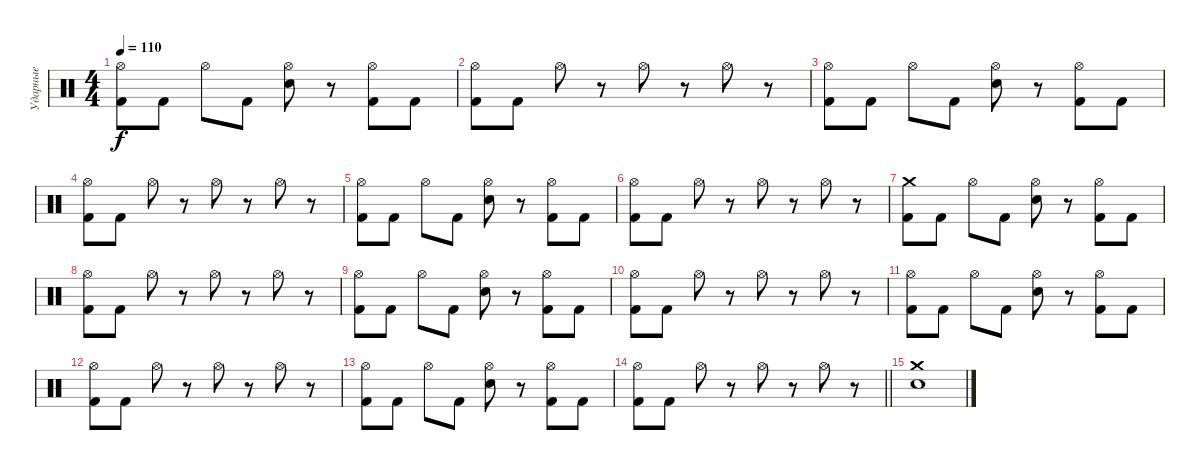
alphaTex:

\track ("Ударные" "Ударные") {instrument percussion}
\staff {score}
\articulation defaults
\ts (4 4)
\tempo 110
\clef neutral
\ks c
("Hi-Hat (open)" "Kick (hit) 2").8{dy f} "Kick (hit) 2".8 "Hi-Hat (open)".8 "Kick (hit) 2".8 ("Hi-Hat (open)" "Electric Snare (hit)").8 r.8 ("Hi-Hat (open)" "Kick (hit) 2").8 "Kick (hit) 2".8 |
("Hi-Hat (open)" "Kick (hit) 2").8 "Kick (hit) 2".8 "Hi-Hat (open)".8 r.8 "Hi-Hat (open)".8 r.8 "Hi-Hat (open)".8 r.8 |
("Hi-Hat (open)" "Kick (hit) 2").8 "Kick (hit) 2".8 "Hi-Hat (open)".8 "Kick (hit) 2".8 ("Hi-Hat (open)" "Electric Snare (hit)").8 r.8 ("Hi-Hat (open)" "Kick (hit) 2").8 "Kick (hit) 2".8 |
("Hi-Hat (open)" "Kick (hit) 2").8 "Kick (hit) 2".8 "Hi-Hat (open)".8 r.8 "Hi-Hat (open)".8 r.8 "Hi-Hat (open)".8 r.8 |
("Hi-Hat (open)" "Kick (hit) 2").8 "Kick (hit) 2".8 "Hi-Hat (open)".8 "Kick (hit) 2".8 ("Hi-Hat (open)" "Electric Snare (hit)").8 r.8 ("Hi-Hat (open)" "Kick (hit) 2").8 "Kick (hit) 2".8 |
("Hi-Hat (open)" "Kick (hit) 2").8 "Kick (hit) 2".8 "Hi-Hat (open)".8 r.8 "Hi-Hat (open)".8 r.8 "Hi-Hat (open)".8 r.8 |
("Crash medium (hit)" "Kick (hit) 2").8 "Kick (hit) 2".8 "Hi-Hat (open)".8 "Kick (hit) 2".8 ("Hi-Hat (open)" "Electric Snare (hit)").8 r.8 ("Hi-Hat (open)" "Kick (hit) 2").8 "Kick (hit) 2".8 |
("Hi-Hat (open)" "Kick (hit) 2").8 "Kick (hit) 2".8 "Hi-Hat (open)".8 r.8 "Hi-Hat (open)".8 r.8 "Hi-Hat (open)".8 r.8 |
("Hi-Hat (open)" "Kick (hit) 2").8 "Kick (hit) 2".8 "Hi-Hat (open)".8 "Kick (hit) 2".8 ("Hi-Hat (open)" "Electric Snare (hit)").8 r.8 ("Hi-Hat (open)" "Kick (hit) 2").8 "Kick (hit) 2".8 |
("Hi-Hat (open)" "Kick (hit) 2").8 "Kick (hit) 2".8 "Hi-Hat (open)".8 r.8 "Hi-Hat (open)".8 r.8 "Hi-Hat (open)".8 r.8 |
("Hi-Hat (open)" "Kick (hit) 2").8 "Kick (hit) 2".8 "Hi-Hat (open)".8 "Kick (hit) 2".8 ("Hi-Hat (open)" "Electric Snare (hit)").8 r.8 ("Hi-Hat (open)" "Kick (hit) 2").8 "Kick (hit) 2".8 |
("Hi-Hat (open)" "Kick (hit) 2").8 "Kick (hit) 2".8 "Hi-Hat (open)".8 r.8 "Hi-Hat (open)".8 r.8 "Hi-Hat (open)".8 r.8 |
("Hi-Hat (open)" "Kick (hit) 2").8 "Kick (hit) 2".8 "Hi-Hat (open)".8 "Kick (hit) 2".8 ("Hi-Hat (open)" "Electric Snare (hit)").8 r.8 ("Hi-Hat (open)" "Kick (hit) 2").8 "Kick (hit) 2".8 |
\barLineRight lightlight
("Hi-Hat (open)" "Kick (hit) 2").8 "Kick (hit) 2".8 "Hi-Hat (open)".8 r.8 "Hi-Hat (open)".8 r.8 "Hi-Hat (open)".8 r.8 |
("Crash medium (hit)" "Electric Snare (hit)").1
